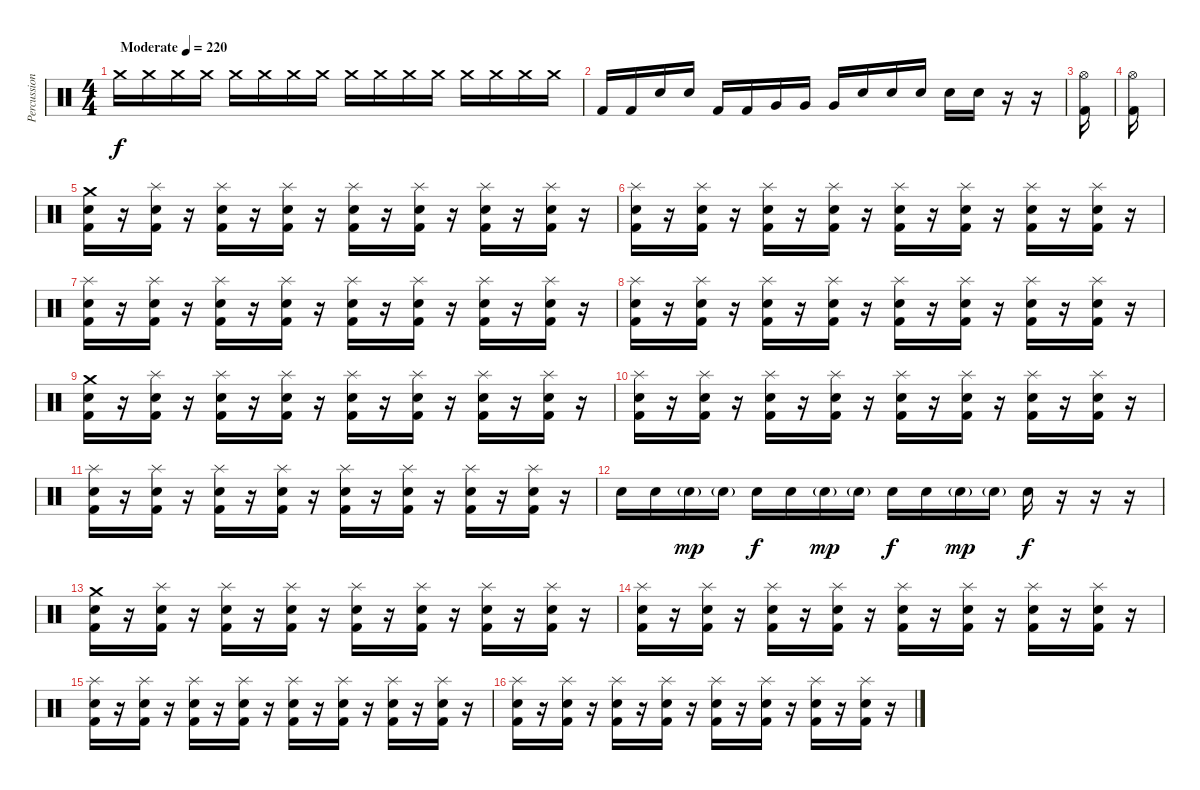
\track ("Percussion" "Percussion") {instrument percussion}
\staff {score}
\articulation defaults
\ts (4 4)
\tempo (220 "Moderate")
\clef neutral
\ks c "Crash medium (hit)".16{dy f volume 16} "Crash medium (hit)".16 "Crash medium (hit)".16 "Crash medium (hit)".16 "Crash medium (hit)".16 "Crash medium (hit)".16 "Crash medium (hit)".16 "Crash medium (hit)".16 "Crash medium (hit)".16 "Crash medium (hit)".16 "Crash medium (hit)".16 "Crash medium (hit)".16 "Crash medium (hit)".16 "Crash medium (hit)".16 "Crash medium (hit)".16 "Crash medium (hit)".16
|
"Kick (hit) 2".16 "Kick (hit) 2".16 "Electric Snare (hit)".16 "Electric Snare (hit)".16 "Kick (hit) 2".16 "Kick (hit) 2".16 "Very Low Tom (hit)".16 "Very Low Tom (hit)".16 "Very Low Tom (hit)".16 "Electric Snare (hit)".16 "Electric Snare (hit)".16 "Electric Snare (hit)".16 "Electric Snare (hit)".16 "Electric Snare (hit)".16 r.16 r.16 |
("Hi-Hat (open)" "Kick (hit) 2").16 |
("Hi-Hat (open)" "Kick (hit) 2").16 |
("Crash medium (hit)" "Electric Snare (hit)" "Kick (hit) 2").16 r.16 ("Splash (hit)" "Electric Snare (hit)" "Kick (hit) 2").16 r.16 ("Splash (hit)" "Electric Snare (hit)" "Kick (hit) 2").16 r.16 ("Splash (hit)" "Electric Snare (hit)" "Kick (hit) 2").16 r.16 ("Splash (hit)" "Electric Snare (hit)" "Kick (hit) 2").16 r.16 ("Splash (hit)" "Electric Snare (hit)" "Kick (hit) 2").16 r.16 ("Splash (hit)" "Electric Snare (hit)" "Kick (hit) 2").16 r.16 ("Splash (hit)" "Electric Snare (hit)" "Kick (hit) 2").16 r.16 |
("Splash (hit)" "Electric Snare (hit)" "Kick (hit) 2").16 r.16 ("Splash (hit)" "Electric Snare (hit)" "Kick (hit) 2").16 r.16 ("Splash (hit)" "Electric Snare (hit)" "Kick (hit) 2").16 r.16 ("Splash (hit)" "Electric Snare (hit)" "Kick (hit) 2").16 r.16 ("Splash (hit)" "Electric Snare (hit)" "Kick (hit) 2").16 r.16 ("Splash (hit)" "Electric Snare (hit)" "Kick (hit) 2").16 r.16 ("Splash (hit)" "Electric Snare (hit)" "Kick (hit) 2").16 r.16 ("Splash (hit)" "Electric Snare (hit)" "Kick (hit) 2").16 r.16 |
("Splash (hit)" "Electric Snare (hit)" "Kick (hit) 2").16 r.16 ("Splash (hit)" "Electric Snare (hit)" "Kick (hit) 2").16 r.16 ("Splash (hit)" "Electric Snare (hit)" "Kick (hit) 2").16 r.16 ("Splash (hit)" "Electric Snare (hit)" "Kick (hit) 2").16 r.16 ("Splash (hit)" "Electric Snare (hit)" "Kick (hit) 2").16 r.16 ("Splash (hit)" "Electric Snare (hit)" "Kick (hit) 2").16 r.16 ("Splash (hit)" "Electric Snare (hit)" "Kick (hit) 2").16 r.16 ("Splash (hit)" "Electric Snare (hit)" "Kick (hit) 2").16 r.16 |
("Splash (hit)" "Electric Snare (hit)" "Kick (hit) 2").16 r.16 ("Splash (hit)" "Electric Snare (hit)" "Kick (hit) 2").16 r.16 ("Splash (hit)" "Electric Snare (hit)" "Kick (hit) 2").16 r.16 ("Splash (hit)" "Electric Snare (hit)" "Kick (hit) 2").16 r.16 ("Splash (hit)" "Electric Snare (hit)" "Kick (hit) 2").16 r.16 ("Splash (hit)" "Electric Snare (hit)" "Kick (hit) 2").16 r.16 ("Splash (hit)" "Electric Snare (hit)" "Kick (hit) 2").16 r.16 ("Splash (hit)" "Electric Snare (hit)" "Kick (hit) 2").16 r.16 |
("Crash medium (hit)" "Electric Snare (hit)" "Kick (hit) 2").16 r.16 ("Splash (hit)" "Electric Snare (hit)" "Kick (hit) 2").16 r.16 ("Splash (hit)" "Electric Snare (hit)" "Kick (hit) 2").16 r.16 ("Splash (hit)" "Electric Snare (hit)" "Kick (hit) 2").16 r.16 ("Splash (hit)" "Electric Snare (hit)" "Kick (hit) 2").16 r.16 ("Splash (hit)" "Electric Snare (hit)" "Kick (hit) 2").16 r.16 ("Splash (hit)" "Electric Snare (hit)" "Kick (hit) 2").16 r.16 ("Splash (hit)" "Electric Snare (hit)" "Kick (hit) 2").16 r.16 |
("Splash (hit)" "Electric Snare (hit)" "Kick (hit) 2").16 r.16 ("Splash (hit)" "Electric Snare (hit)" "Kick (hit) 2").16 r.16 ("Splash (hit)" "Electric Snare (hit)" "Kick (hit) 2").16 r.16 ("Splash (hit)" "Electric Snare (hit)" "Kick (hit) 2").16 r.16 ("Splash (hit)" "Electric Snare (hit)" "Kick (hit) 2").16 r.16 ("Splash (hit)" "Electric Snare (hit)" "Kick (hit) 2").16 r.16 ("Splash (hit)" "Electric Snare (hit)" "Kick (hit) 2").16 r.16 ("Splash (hit)" "Electric Snare (hit)" "Kick (hit) 2").16 r.16 |
("Splash (hit)" "Electric Snare (hit)" "Kick (hit) 2").16 r.16 ("Splash (hit)" "Electric Snare (hit)" "Kick (hit) 2").16 r.16 ("Splash (hit)" "Electric Snare (hit)" "Kick (hit) 2").16 r.16 ("Splash (hit)" "Electric Snare (hit)" "Kick (hit) 2").16 r.16 ("Splash (hit)" "Electric Snare (hit)" "Kick (hit) 2").16 r.16 ("Splash (hit)" "Electric Snare (hit)" "Kick (hit) 2").16 r.16 ("Splash (hit)" "Electric Snare (hit)" "Kick (hit) 2").16 r.16 ("Splash (hit)" "Electric Snare (hit)" "Kick (hit) 2").16 r.16 |
"Electric Snare (hit)".16 "Electric Snare (hit)".16 "Electric Snare (hit)"{g}.16{dy mp} "Electric Snare (hit)"{g}.16 "Electric Snare (hit)".16{dy f} "Electric Snare (hit)".16 "Electric Snare (hit)"{g}.16{dy mp} "Electric Snare (hit)"{g}.16 "Electric Snare (hit)".16{dy f} "Electric Snare (hit)".16 "Electric Snare (hit)"{g}.16{dy mp} "Electric Snare (hit)"{g}.16 "Electric Snare (hit)".16{dy f} r.16 r.16 r.16 |
("Crash medium (hit)" "Electric Snare (hit)" "Kick (hit) 2").16 r.16 ("Splash (hit)" "Electric Snare (hit)" "Kick (hit) 2").16 r.16 ("Splash (hit)" "Electric Snare (hit)" "Kick (hit) 2").16 r.16 ("Splash (hit)" "Electric Snare (hit)" "Kick (hit) 2").16 r.16 ("Splash (hit)" "Electric Snare (hit)" "Kick (hit) 2").16 r.16 ("Splash (hit)" "Electric Snare (hit)" "Kick (hit) 2").16 r.16 ("Splash (hit)" "Electric Snare (hit)" "Kick (hit) 2").16 r.16 ("Splash (hit)" "Electric Snare (hit)" "Kick (hit) 2").16 r.16 |
("Splash (hit)" "Electric Snare (hit)" "Kick (hit) 2").16 r.16 ("Splash (hit)" "Electric Snare (hit)" "Kick (hit) 2").16 r.16 ("Splash (hit)" "Electric Snare (hit)" "Kick (hit) 2").16 r.16 ("Splash (hit)" "Electric Snare (hit)" "Kick (hit) 2").16 r.16 ("Splash (hit)" "Electric Snare (hit)" "Kick (hit) 2").16 r.16 ("Splash (hit)" "Electric Snare (hit)" "Kick (hit) 2").16 r.16 ("Splash (hit)" "Electric Snare (hit)" "Kick (hit) 2").16 r.16 ("Splash (hit)" "Electric Snare (hit)" "Kick (hit) 2").16 r.16 |
("Splash (hit)" "Electric Snare (hit)" "Kick (hit) 2").16 r.16 ("Splash (hit)" "Electric Snare (hit)" "Kick (hit) 2").16 r.16 ("Splash (hit)" "Electric Snare (hit)" "Kick (hit) 2").16 r.16 ("Splash (hit)" "Electric Snare (hit)" "Kick (hit) 2").16 r.16 ("Splash (hit)" "Electric Snare (hit)" "Kick (hit) 2").16 r.16 ("Splash (hit)" "Electric Snare (hit)" "Kick (hit) 2").16 r.16 ("Splash (hit)" "Electric Snare (hit)" "Kick (hit) 2").16 r.16 ("Splash (hit)" "Electric Snare (hit)" "Kick (hit) 2").16 r.16 |
("Splash (hit)" "Electric Snare (hit)" "Kick (hit) 2").16 r.16 ("Splash (hit)" "Electric Snare (hit)" "Kick (hit) 2").16 r.16 ("Splash (hit)" "Electric Snare (hit)" "Kick (hit) 2").16 r.16 ("Splash (hit)" "Electric Snare (hit)" "Kick (hit) 2").16 r.16 ("Splash (hit)" "Electric Snare (hit)" "Kick (hit) 2").16 r.16 ("Splash (hit)" "Electric Snare (hit)" "Kick (hit) 2").16 r.16 ("Splash (hit)" "Electric Snare (hit)" "Kick (hit) 2").16 r.16 ("Splash (hit)" "Electric Snare (hit)" "Kick (hit) 2").16 r.16
